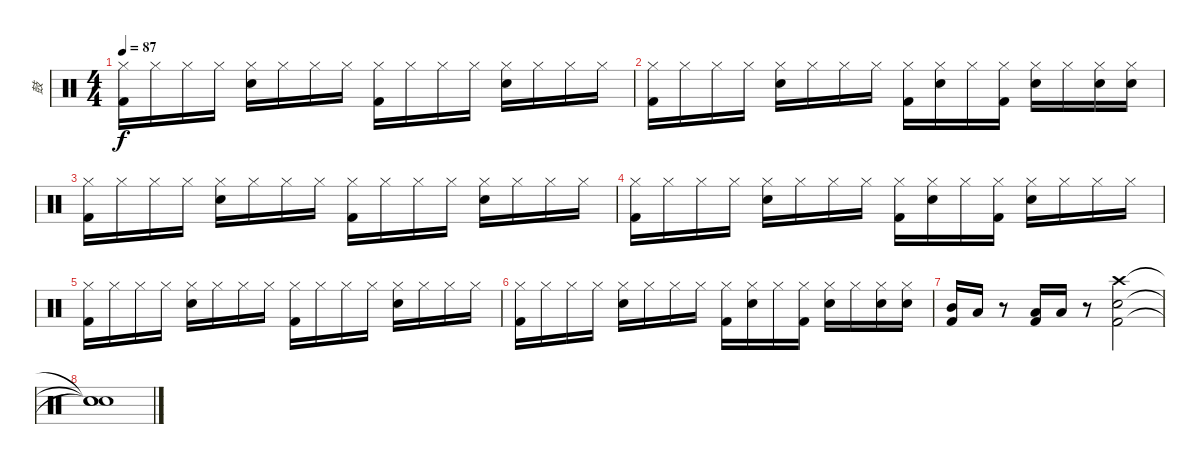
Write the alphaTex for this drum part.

\track ("鼓" "鼓") {instrument percussion}
\staff {score}
\articulation defaults
\ts (4 4)
\tempo 87
\clef neutral
\ks c
("Hi-Hat (closed)" "Kick (hit) 2").16{dy f} "Hi-Hat (closed)".16 "Hi-Hat (closed)".16 "Hi-Hat (closed)".16 ("Hi-Hat (closed)" "Snare (hit) 2").16 "Hi-Hat (closed)".16 "Hi-Hat (closed)".16 "Hi-Hat (closed)".16 ("Hi-Hat (closed)" "Kick (hit) 2").16 "Hi-Hat (closed)".16 "Hi-Hat (closed)".16 "Hi-Hat (closed)".16 ("Hi-Hat (closed)" "Snare (hit) 2").16 "Hi-Hat (closed)".16 "Hi-Hat (closed)".16 "Hi-Hat (closed)".16 |
("Hi-Hat (closed)" "Kick (hit) 2").16 "Hi-Hat (closed)".16 "Hi-Hat (closed)".16 "Hi-Hat (closed)".16 ("Hi-Hat (closed)" "Snare (hit) 2").16 "Hi-Hat (closed)".16 "Hi-Hat (closed)".16 "Hi-Hat (closed)".16 ("Hi-Hat (closed)" "Kick (hit) 2").16 ("Hi-Hat (closed)" "Snare (hit) 2").16 "Hi-Hat (closed)".16 ("Hi-Hat (closed)" "Kick (hit) 2").16 ("Hi-Hat (closed)" "Snare (hit) 2").16 "Hi-Hat (closed)".16 ("Hi-Hat (closed)" "Snare (hit) 2").16 ("Hi-Hat (closed)" "Snare (hit) 2").16 |
("Hi-Hat (closed)" "Kick (hit) 2").16 "Hi-Hat (closed)".16 "Hi-Hat (closed)".16 "Hi-Hat (closed)".16 ("Hi-Hat (closed)" "Snare (hit) 2").16 "Hi-Hat (closed)".16 "Hi-Hat (closed)".16 "Hi-Hat (closed)".16 ("Hi-Hat (closed)" "Kick (hit) 2").16 "Hi-Hat (closed)".16 "Hi-Hat (closed)".16 "Hi-Hat (closed)".16 ("Hi-Hat (closed)" "Snare (hit) 2").16 "Hi-Hat (closed)".16 "Hi-Hat (closed)".16 "Hi-Hat (closed)".16 |
("Hi-Hat (closed)" "Kick (hit) 2").16 "Hi-Hat (closed)".16 "Hi-Hat (closed)".16 "Hi-Hat (closed)".16 ("Hi-Hat (closed)" "Snare (hit) 2").16 "Hi-Hat (closed)".16 "Hi-Hat (closed)".16 "Hi-Hat (closed)".16 ("Hi-Hat (closed)" "Kick (hit) 2").16 ("Hi-Hat (closed)" "Snare (hit) 2").16 "Hi-Hat (closed)".16 ("Hi-Hat (closed)" "Kick (hit) 2").16 ("Hi-Hat (closed)" "Snare (hit) 2").16 "Hi-Hat (closed)".16 "Hi-Hat (closed)".16 "Hi-Hat (closed)".16 |
("Hi-Hat (closed)" "Kick (hit) 2").16 "Hi-Hat (closed)".16 "Hi-Hat (closed)".16 "Hi-Hat (closed)".16 ("Hi-Hat (closed)" "Snare (hit) 2").16 "Hi-Hat (closed)".16 "Hi-Hat (closed)".16 "Hi-Hat (closed)".16 ("Hi-Hat (closed)" "Kick (hit) 2").16 "Hi-Hat (closed)".16 "Hi-Hat (closed)".16 "Hi-Hat (closed)".16 ("Hi-Hat (closed)" "Snare (hit) 2").16 "Hi-Hat (closed)".16 "Hi-Hat (closed)".16 "Hi-Hat (closed)".16 |
("Hi-Hat (closed)" "Kick (hit) 2").16 "Hi-Hat (closed)".16 "Hi-Hat (closed)".16 "Hi-Hat (closed)".16 ("Hi-Hat (closed)" "Snare (hit) 2").16 "Hi-Hat (closed)".16 "Hi-Hat (closed)".16 "Hi-Hat (closed)".16 ("Hi-Hat (closed)" "Kick (hit) 2").16 ("Hi-Hat (closed)" "Snare (hit) 2").16 "Hi-Hat (closed)".16 ("Hi-Hat (closed)" "Kick (hit) 2").16 ("Hi-Hat (closed)" "Snare (hit) 2").16 "Hi-Hat (closed)".16 ("Hi-Hat (closed)" "Snare (hit) 2").16 ("Hi-Hat (closed)" "Snare (hit) 2").16 |
("Mid Tom (hit)" "Kick (hit) 2").16 "Low Tom (hit)".16 r.8 ("Low Tom (hit)" "Kick (hit) 2").16 "Low Floor Tom (hit)".16 r.8 ("Crash high (hit)" "Snare (hit) 2" "Kick (hit) 2").2 |
("Snare (hit)"{t} "Snare (hit)"{t} "Snare (hit)"{t}).1
